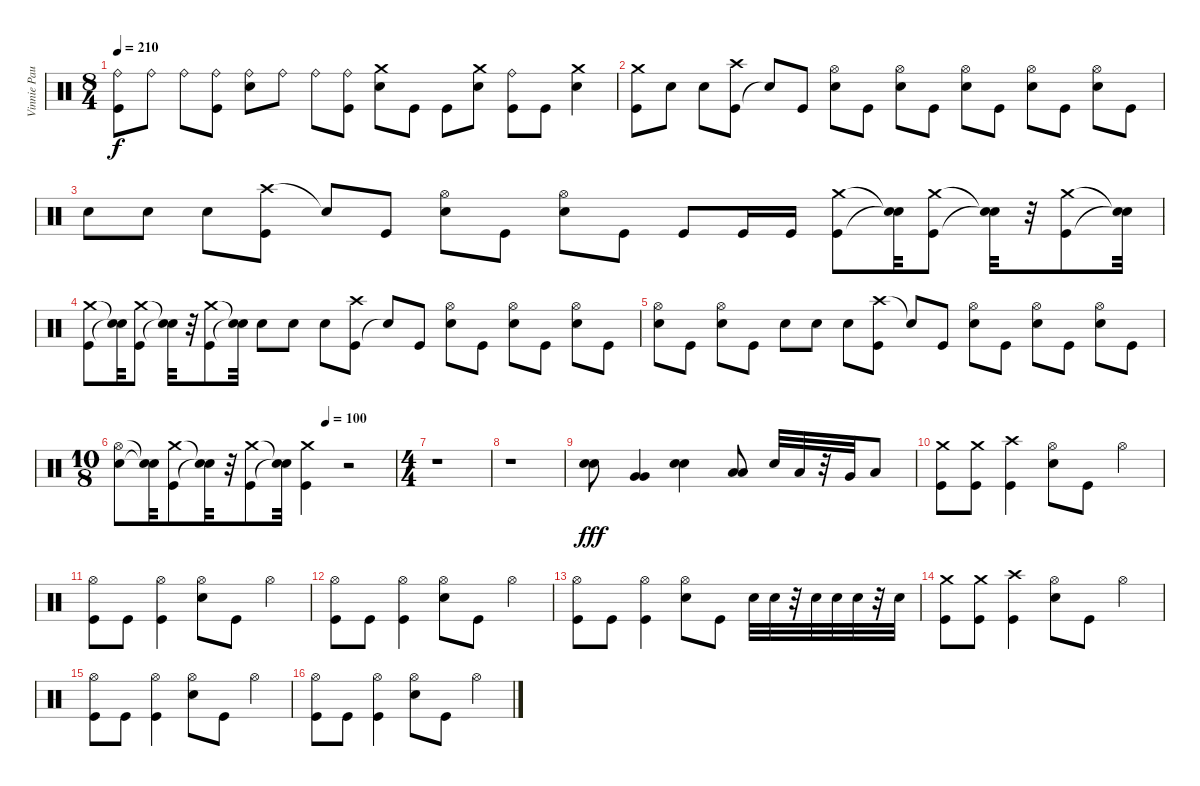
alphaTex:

\track ("Vinnie Paul (Drums)" "Vinnie Pau") {instrument percussion}
\staff {score}
\articulation defaults
\ts (8 4)
\tempo 210
\clef neutral
\ks c
("Kick (hit)" "Ride (bell)").8{dy f} "Ride (bell)".8 "Ride (bell)".8 ("Kick (hit)" "Ride (bell)").8 ("Electric Snare (hit)" "Ride (bell)").8 "Ride (bell)".8 "Ride (bell)".8 ("Kick (hit)" "Ride (bell)").8 ("Crash medium (hit)" "Electric Snare (hit)").8 "Kick (hit)".8 "Kick (hit)".8 ("Crash medium (hit)" "Electric Snare (hit)").8 ("Ride (bell)" "Kick (hit)").8 "Kick (hit)".8 ("Crash medium (hit)" "Electric Snare (hit)").4 |
("Kick (hit)" "Crash medium (hit)").8 "Electric Snare (hit)".8 "Electric Snare (hit)".8 ("Kick (hit)" "Crash high (hit)").8 "Snare (hit)"{t}.8 "Kick (hit)".8 ("Hi-Hat (open)" "Electric Snare (hit)").8 "Kick (hit)".8 ("Hi-Hat (open)" "Electric Snare (hit)").8 "Kick (hit)".8 ("Hi-Hat (open)" "Electric Snare (hit)").8 "Kick (hit)".8 ("Hi-Hat (open)" "Electric Snare (hit)").8 "Kick (hit)".8 ("Hi-Hat (open)" "Electric Snare (hit)").8 "Kick (hit)".8 |
"Electric Snare (hit)".8 "Electric Snare (hit)".8 "Electric Snare (hit)".8 ("Crash high (hit)" "Kick (hit)").8 "Snare (hit)"{t}.8 "Kick (hit)".8 ("Hi-Hat (open)" "Electric Snare (hit)").8 "Kick (hit)".8 ("Hi-Hat (open)" "Electric Snare (hit)").8 "Kick (hit)".8 "Kick (hit)".8 "Kick (hit)".16 "Kick (hit)".16 ("Crash medium (hit)" "Kick (hit)").8 ("Snare (hit)"{t} "Snare (hit)"{t}).32 ("Crash medium (hit)" "Kick (hit)").8 ("Snare (hit)"{t} "Snare (hit)"{t}).32 r.32 ("Crash medium (hit)" "Kick (hit)").8 ("Snare (hit)"{t} "Snare (hit)"{t}).32 |
("Kick (hit)" "Crash medium (hit)").8 ("Snare (hit)"{t} "Snare (hit)"{t}).32 ("Kick (hit)" "Crash medium (hit)").8 ("Snare (hit)"{t} "Snare (hit)"{t}).32 r.32 ("Kick (hit)" "Crash medium (hit)").8 ("Snare (hit)"{t} "Snare (hit)"{t}).32 "Electric Snare (hit)".8 "Electric Snare (hit)".8 "Electric Snare (hit)".8 ("Kick (hit)" "Crash high (hit)").8 "Snare (hit)"{t}.8 "Kick (hit)".8 ("Hi-Hat (open)" "Electric Snare (hit)").8 "Kick (hit)".8 ("Hi-Hat (open)" "Electric Snare (hit)").8 "Kick (hit)".8 ("Hi-Hat (open)" "Electric Snare (hit)").8 "Kick (hit)".8 |
("Hi-Hat (open)" "Electric Snare (hit)").8 "Kick (hit)".8 ("Hi-Hat (open)" "Electric Snare (hit)").8 "Kick (hit)".8 "Electric Snare (hit)".8 "Electric Snare (hit)".8 "Electric Snare (hit)".8 ("Crash high (hit)" "Kick (hit)").8 "Snare (hit)"{t}.8 "Kick (hit)".8 ("Hi-Hat (open)" "Electric Snare (hit)").8 "Kick (hit)".8 ("Hi-Hat (open)" "Electric Snare (hit)").8 "Kick (hit)".8 ("Hi-Hat (open)" "Electric Snare (hit)").8 "Kick (hit)".8 |
\ts (10 8)
\tempo (100 0.75)
("Hi-Hat (open)" "Electric Snare (hit)").8 ("Snare (hit)"{t} "Snare (hit)"{t}).32 ("Kick (hit)" "Crash medium (hit)").8 ("Snare (hit)"{t} "Snare (hit)"{t}).32 r.32 ("Kick (hit)" "Crash medium (hit)").8 ("Snare (hit)"{t} "Snare (hit)"{t}).32 ("Kick (hit)" "Crash medium (hit)").4 r.2 |
\ts (4 4)
r.1 |
r.1 |
("Electric Snare (hit)" "Electric Snare (hit)").8{dy fff} ("Very Low Tom (hit)" "Very Low Tom (hit)").4 ("Electric Snare (hit)" "Electric Snare (hit)").4 ("Low Floor Tom (hit)" "Low Floor Tom (hit)").8 "Electric Snare (hit)".32 "Low Tom (hit)".32 r.32 "Very Low Tom (hit)".32 "Low Floor Tom (hit)".8 |
("Kick (hit)" "Crash medium (hit)").8 ("Kick (hit)" "Crash medium (hit)").8 ("Kick (hit)" "Crash high (hit)").4 ("Hi-Hat (open)" "Electric Snare (hit)").8 "Kick (hit)".8 "Hi-Hat (open)".4 |
("Kick (hit)" "Hi-Hat (open)").8 "Kick (hit)".8 ("Kick (hit)" "Hi-Hat (open)").4 ("Electric Snare (hit)" "Hi-Hat (open)").8 "Kick (hit)".8 "Hi-Hat (open)".4 |
("Kick (hit)" "Hi-Hat (open)").8 "Kick (hit)".8 ("Kick (hit)" "Hi-Hat (open)").4 ("Electric Snare (hit)" "Hi-Hat (open)").8 "Kick (hit)".8 "Hi-Hat (open)".4 |
("Kick (hit)" "Hi-Hat (open)").8 "Kick (hit)".8 ("Kick (hit)" "Hi-Hat (open)").4 ("Electric Snare (hit)" "Hi-Hat (open)").8 "Kick (hit)".8 "Electric Snare (hit)".32 "Electric Snare (hit)".32 r.32 "Electric Snare (hit)".32 "Electric Snare (hit)".32 "Electric Snare (hit)".32 r.32 "Electric Snare (hit)".32 |
("Kick (hit)" "Crash medium (hit)").8 ("Kick (hit)" "Crash medium (hit)").8 ("Kick (hit)" "Crash high (hit)").4 ("Hi-Hat (open)" "Electric Snare (hit)").8 "Kick (hit)".8 "Hi-Hat (open)".4 |
("Kick (hit)" "Hi-Hat (open)").8 "Kick (hit)".8 ("Kick (hit)" "Hi-Hat (open)").4 ("Electric Snare (hit)" "Hi-Hat (open)").8 "Kick (hit)".8 "Hi-Hat (open)".4 |
("Kick (hit)" "Hi-Hat (open)").8 "Kick (hit)".8 ("Kick (hit)" "Hi-Hat (open)").4 ("Electric Snare (hit)" "Hi-Hat (open)").8 "Kick (hit)".8 "Hi-Hat (open)".4
